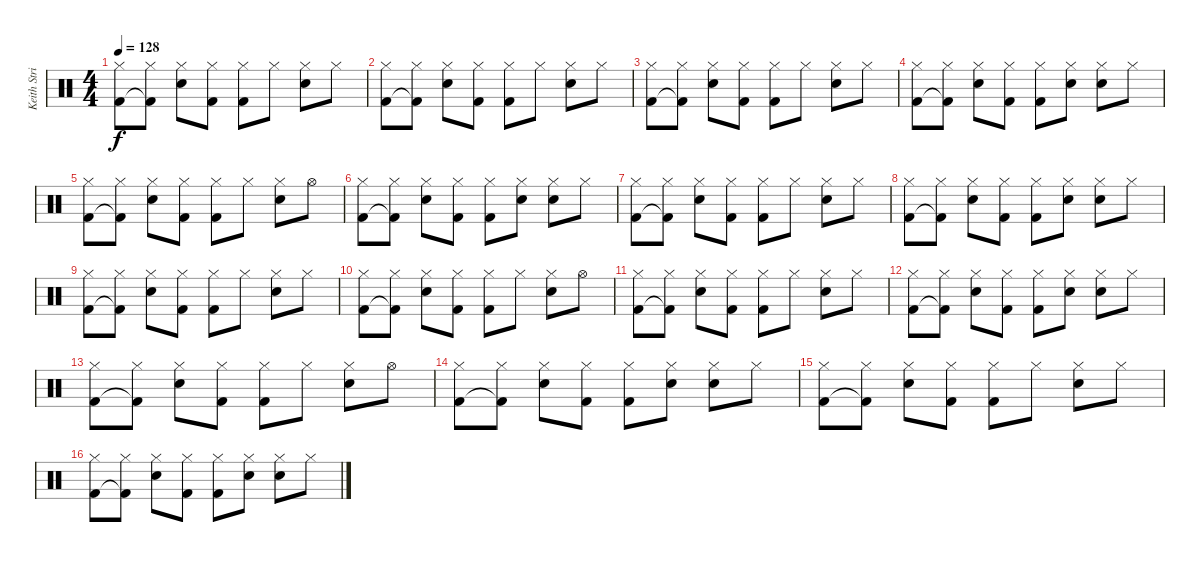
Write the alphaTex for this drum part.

\track ("Keith Strickland (drums)" "Keith Stri") {instrument percussion}
\staff {score}
\articulation defaults
\ts (4 4)
\tempo 128
\clef neutral
\ks c
("Hi-Hat (closed)" "Kick (hit) 2").8{dy f} ("Hi-Hat (closed)" "Kick (hit) 2"{t}).8 ("Hi-Hat (closed)" "Snare (hit) 2").8 ("Hi-Hat (closed)" "Kick (hit) 2").8 ("Hi-Hat (closed)" "Kick (hit) 2").8 "Hi-Hat (closed)".8 ("Hi-Hat (closed)" "Snare (hit) 2").8 "Hi-Hat (closed)".8 |
("Hi-Hat (closed)" "Kick (hit) 2").8 ("Hi-Hat (closed)" "Kick (hit) 2"{t}).8 ("Hi-Hat (closed)" "Snare (hit) 2").8 ("Hi-Hat (closed)" "Kick (hit) 2").8 ("Hi-Hat (closed)" "Kick (hit) 2").8 "Hi-Hat (closed)".8 ("Hi-Hat (closed)" "Snare (hit) 2").8 "Hi-Hat (closed)".8 |
("Hi-Hat (closed)" "Kick (hit) 2").8 ("Hi-Hat (closed)" "Kick (hit) 2"{t}).8 ("Hi-Hat (closed)" "Snare (hit) 2").8 ("Hi-Hat (closed)" "Kick (hit) 2").8 ("Hi-Hat (closed)" "Kick (hit) 2").8 "Hi-Hat (closed)".8 ("Hi-Hat (closed)" "Snare (hit) 2").8 "Hi-Hat (closed)".8 |
("Hi-Hat (closed)" "Kick (hit) 2").8 ("Hi-Hat (closed)" "Kick (hit) 2"{t}).8 ("Hi-Hat (closed)" "Snare (hit) 2").8 ("Hi-Hat (closed)" "Kick (hit) 2").8 ("Hi-Hat (closed)" "Kick (hit) 2").8 ("Hi-Hat (closed)" "Snare (hit) 2").8 ("Hi-Hat (closed)" "Snare (hit) 2").8 "Hi-Hat (closed)".8 |
("Hi-Hat (closed)" "Kick (hit) 2").8 ("Hi-Hat (closed)" "Kick (hit) 2"{t}).8 ("Hi-Hat (closed)" "Snare (hit) 2").8 ("Hi-Hat (closed)" "Kick (hit) 2").8 ("Hi-Hat (closed)" "Kick (hit) 2").8 "Hi-Hat (closed)".8 ("Hi-Hat (closed)" "Snare (hit) 2").8 "Hi-Hat (open)".8 |
("Hi-Hat (closed)" "Kick (hit) 2").8 ("Hi-Hat (closed)" "Kick (hit) 2"{t}).8 ("Hi-Hat (closed)" "Snare (hit) 2").8 ("Hi-Hat (closed)" "Kick (hit) 2").8 ("Hi-Hat (closed)" "Kick (hit) 2").8 ("Hi-Hat (closed)" "Snare (hit) 2").8 ("Hi-Hat (closed)" "Snare (hit) 2").8 "Hi-Hat (closed)".8 |
("Hi-Hat (closed)" "Kick (hit) 2").8 ("Hi-Hat (closed)" "Kick (hit) 2"{t}).8 ("Hi-Hat (closed)" "Snare (hit) 2").8 ("Hi-Hat (closed)" "Kick (hit) 2").8 ("Hi-Hat (closed)" "Kick (hit) 2").8 "Hi-Hat (closed)".8 ("Hi-Hat (closed)" "Snare (hit) 2").8 "Hi-Hat (closed)".8 |
("Hi-Hat (closed)" "Kick (hit) 2").8 ("Hi-Hat (closed)" "Kick (hit) 2"{t}).8 ("Hi-Hat (closed)" "Snare (hit) 2").8 ("Hi-Hat (closed)" "Kick (hit) 2").8 ("Hi-Hat (closed)" "Kick (hit) 2").8 ("Hi-Hat (closed)" "Snare (hit) 2").8 ("Hi-Hat (closed)" "Snare (hit) 2").8 "Hi-Hat (closed)".8 |
("Hi-Hat (closed)" "Kick (hit) 2").8 ("Hi-Hat (closed)" "Kick (hit) 2"{t}).8 ("Hi-Hat (closed)" "Snare (hit) 2").8 ("Hi-Hat (closed)" "Kick (hit) 2").8 ("Hi-Hat (closed)" "Kick (hit) 2").8 "Hi-Hat (closed)".8 ("Hi-Hat (closed)" "Snare (hit) 2").8 "Hi-Hat (closed)".8 |
("Hi-Hat (closed)" "Kick (hit) 2").8 ("Hi-Hat (closed)" "Kick (hit) 2"{t}).8 ("Hi-Hat (closed)" "Snare (hit) 2").8 ("Hi-Hat (closed)" "Kick (hit) 2").8 ("Hi-Hat (closed)" "Kick (hit) 2").8 "Hi-Hat (closed)".8 ("Hi-Hat (closed)" "Snare (hit) 2").8 "Hi-Hat (open)".8 |
("Hi-Hat (closed)" "Kick (hit) 2").8 ("Hi-Hat (closed)" "Kick (hit) 2"{t}).8 ("Hi-Hat (closed)" "Snare (hit) 2").8 ("Hi-Hat (closed)" "Kick (hit) 2").8 ("Hi-Hat (closed)" "Kick (hit) 2").8 "Hi-Hat (closed)".8 ("Hi-Hat (closed)" "Snare (hit) 2").8 "Hi-Hat (closed)".8 |
("Hi-Hat (closed)" "Kick (hit) 2").8 ("Hi-Hat (closed)" "Kick (hit) 2"{t}).8 ("Hi-Hat (closed)" "Snare (hit) 2").8 ("Hi-Hat (closed)" "Kick (hit) 2").8 ("Hi-Hat (closed)" "Kick (hit) 2").8 ("Hi-Hat (closed)" "Snare (hit) 2").8 ("Hi-Hat (closed)" "Snare (hit) 2").8 "Hi-Hat (closed)".8 |
("Hi-Hat (closed)" "Kick (hit) 2").8 ("Hi-Hat (closed)" "Kick (hit) 2"{t}).8 ("Hi-Hat (closed)" "Snare (hit) 2").8 ("Hi-Hat (closed)" "Kick (hit) 2").8 ("Hi-Hat (closed)" "Kick (hit) 2").8 "Hi-Hat (closed)".8 ("Hi-Hat (closed)" "Snare (hit) 2").8 "Hi-Hat (open)".8 |
("Hi-Hat (closed)" "Kick (hit) 2").8 ("Hi-Hat (closed)" "Kick (hit) 2"{t}).8 ("Hi-Hat (closed)" "Snare (hit) 2").8 ("Hi-Hat (closed)" "Kick (hit) 2").8 ("Hi-Hat (closed)" "Kick (hit) 2").8 ("Hi-Hat (closed)" "Snare (hit) 2").8 ("Hi-Hat (closed)" "Snare (hit) 2").8 "Hi-Hat (closed)".8 |
("Hi-Hat (closed)" "Kick (hit) 2").8 ("Hi-Hat (closed)" "Kick (hit) 2"{t}).8 ("Hi-Hat (closed)" "Snare (hit) 2").8 ("Hi-Hat (closed)" "Kick (hit) 2").8 ("Hi-Hat (closed)" "Kick (hit) 2").8 "Hi-Hat (closed)".8 ("Hi-Hat (closed)" "Snare (hit) 2").8 "Hi-Hat (closed)".8 |
("Hi-Hat (closed)" "Kick (hit) 2").8 ("Hi-Hat (closed)" "Kick (hit) 2"{t}).8 ("Hi-Hat (closed)" "Snare (hit) 2").8 ("Hi-Hat (closed)" "Kick (hit) 2").8 ("Hi-Hat (closed)" "Kick (hit) 2").8 ("Hi-Hat (closed)" "Snare (hit) 2").8 ("Hi-Hat (closed)" "Snare (hit) 2").8 "Hi-Hat (closed)".8
